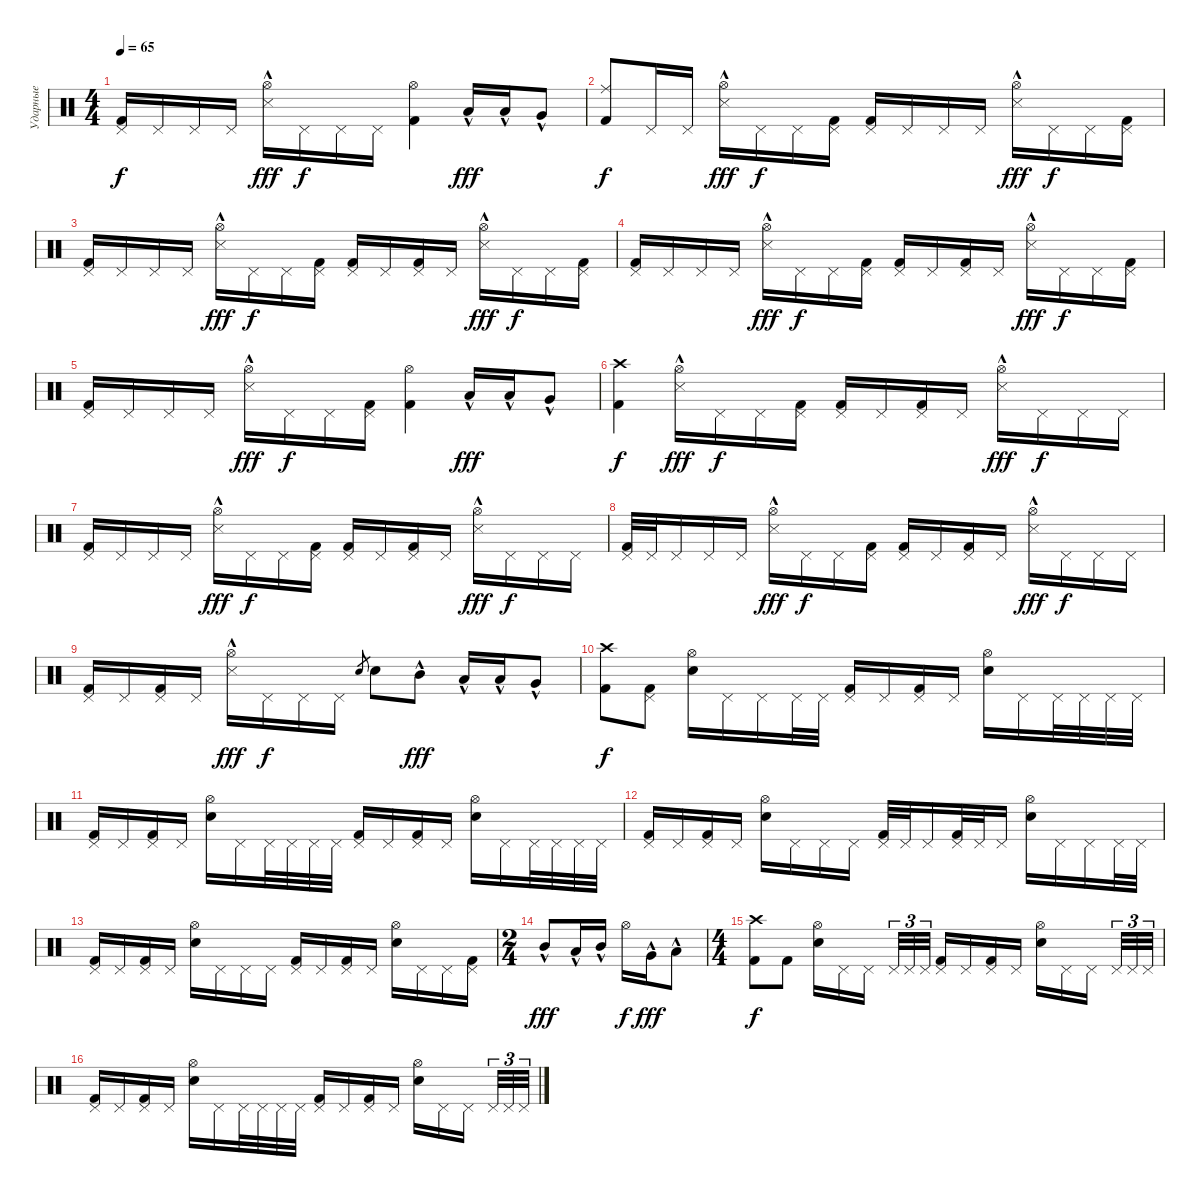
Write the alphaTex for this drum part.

\track ("Ударные" "Ударные") {instrument percussion}
\staff {score}
\articulation defaults
\ts (4 4)
\tempo 65
\clef neutral
\ks c
("Kick (hit) 2" "Pedal Hi-Hat (hit)").16{dy f} "Pedal Hi-Hat (hit)".16 "Pedal Hi-Hat (hit)".16 "Pedal Hi-Hat (hit)".16 ("Snare (side stick) 3"{hac} "Hi-Hat (open)").16{dy fff} "Pedal Hi-Hat (hit)".16{dy f} "Pedal Hi-Hat (hit)".16 "Pedal Hi-Hat (hit)".16 ("Kick (hit) 2" "Hi-Hat (open)").4 "Low Tom (hit)"{hac}.16{dy fff} "Low Tom (hit)"{hac}.16 "Very Low Tom (hit)"{hac}.8 |
("Kick (hit) 2" "Ride (middle)").8{dy f} "Pedal Hi-Hat (hit)".16 "Pedal Hi-Hat (hit)".16 ("Snare (side stick) 3"{hac} "Hi-Hat (open)").16{dy fff} "Pedal Hi-Hat (hit)".16{dy f} "Pedal Hi-Hat (hit)".16 ("Kick (hit) 2" "Pedal Hi-Hat (hit)").16 ("Kick (hit) 2" "Pedal Hi-Hat (hit)").16 "Pedal Hi-Hat (hit)".16 "Pedal Hi-Hat (hit)".16 "Pedal Hi-Hat (hit)".16 ("Snare (side stick) 3"{hac} "Hi-Hat (open)").16{dy fff} "Pedal Hi-Hat (hit)".16{dy f} "Pedal Hi-Hat (hit)".16 ("Kick (hit) 2" "Pedal Hi-Hat (hit)").16 |
("Kick (hit) 2" "Pedal Hi-Hat (hit)").16 "Pedal Hi-Hat (hit)".16 "Pedal Hi-Hat (hit)".16 "Pedal Hi-Hat (hit)".16 ("Snare (side stick) 3"{hac} "Hi-Hat (open)").16{dy fff} "Pedal Hi-Hat (hit)".16{dy f} "Pedal Hi-Hat (hit)".16 ("Kick (hit) 2" "Pedal Hi-Hat (hit)").16 ("Kick (hit) 2" "Pedal Hi-Hat (hit)").16 "Pedal Hi-Hat (hit)".16 ("Kick (hit) 2" "Pedal Hi-Hat (hit)").16 "Pedal Hi-Hat (hit)".16 ("Snare (side stick) 3"{hac} "Hi-Hat (open)").16{dy fff} "Pedal Hi-Hat (hit)".16{dy f} "Pedal Hi-Hat (hit)".16 ("Kick (hit) 2" "Pedal Hi-Hat (hit)").16 |
("Kick (hit) 2" "Pedal Hi-Hat (hit)").16 "Pedal Hi-Hat (hit)".16 "Pedal Hi-Hat (hit)".16 "Pedal Hi-Hat (hit)".16 ("Snare (side stick) 3"{hac} "Hi-Hat (open)").16{dy fff} "Pedal Hi-Hat (hit)".16{dy f} "Pedal Hi-Hat (hit)".16 ("Kick (hit) 2" "Pedal Hi-Hat (hit)").16 ("Kick (hit) 2" "Pedal Hi-Hat (hit)").16 "Pedal Hi-Hat (hit)".16 ("Kick (hit) 2" "Pedal Hi-Hat (hit)").16 "Pedal Hi-Hat (hit)".16 ("Snare (side stick) 3"{hac} "Hi-Hat (open)").16{dy fff} "Pedal Hi-Hat (hit)".16{dy f} "Pedal Hi-Hat (hit)".16 ("Kick (hit) 2" "Pedal Hi-Hat (hit)").16 |
("Kick (hit) 2" "Pedal Hi-Hat (hit)").16 "Pedal Hi-Hat (hit)".16 "Pedal Hi-Hat (hit)".16 "Pedal Hi-Hat (hit)".16 ("Snare (side stick) 3"{hac} "Hi-Hat (open)").16{dy fff} "Pedal Hi-Hat (hit)".16{dy f} "Pedal Hi-Hat (hit)".16 ("Kick (hit) 2" "Pedal Hi-Hat (hit)").16 ("Kick (hit) 2" "Hi-Hat (open)").4 "Low Tom (hit)"{hac}.16{dy fff} "Low Tom (hit)"{hac}.16 "Very Low Tom (hit)"{hac}.8 |
("Kick (hit) 2" "Crash high (hit)").4{dy f} ("Snare (side stick) 3"{hac} "Hi-Hat (open)").16{dy fff} "Pedal Hi-Hat (hit)".16{dy f} "Pedal Hi-Hat (hit)".16 ("Kick (hit) 2" "Pedal Hi-Hat (hit)").16 ("Kick (hit) 2" "Pedal Hi-Hat (hit)").16 "Pedal Hi-Hat (hit)".16 ("Kick (hit) 2" "Pedal Hi-Hat (hit)").16 "Pedal Hi-Hat (hit)".16 ("Snare (side stick) 3"{hac} "Hi-Hat (open)").16{dy fff} "Pedal Hi-Hat (hit)".16{dy f} "Pedal Hi-Hat (hit)".16 "Pedal Hi-Hat (hit)".16 |
("Kick (hit) 2" "Pedal Hi-Hat (hit)").16 "Pedal Hi-Hat (hit)".16 "Pedal Hi-Hat (hit)".16 "Pedal Hi-Hat (hit)".16 ("Snare (side stick) 3"{hac} "Hi-Hat (open)").16{dy fff} "Pedal Hi-Hat (hit)".16{dy f} "Pedal Hi-Hat (hit)".16 ("Kick (hit) 2" "Pedal Hi-Hat (hit)").16 ("Kick (hit) 2" "Pedal Hi-Hat (hit)").16 "Pedal Hi-Hat (hit)".16 ("Kick (hit) 2" "Pedal Hi-Hat (hit)").16 "Pedal Hi-Hat (hit)".16 ("Snare (side stick) 3"{hac} "Hi-Hat (open)").16{dy fff} "Pedal Hi-Hat (hit)".16{dy f} "Pedal Hi-Hat (hit)".16 "Pedal Hi-Hat (hit)".16 |
("Kick (hit) 2" "Pedal Hi-Hat (hit)").32 "Pedal Hi-Hat (hit)".32 "Pedal Hi-Hat (hit)".16 "Pedal Hi-Hat (hit)".16 "Pedal Hi-Hat (hit)".16 ("Snare (side stick) 3"{hac} "Hi-Hat (open)").16{dy fff} "Pedal Hi-Hat (hit)".16{dy f} "Pedal Hi-Hat (hit)".16 ("Kick (hit) 2" "Pedal Hi-Hat (hit)").16 ("Kick (hit) 2" "Pedal Hi-Hat (hit)").16 "Pedal Hi-Hat (hit)".16 ("Kick (hit) 2" "Pedal Hi-Hat (hit)").16 "Pedal Hi-Hat (hit)".16 ("Snare (side stick) 3"{hac} "Hi-Hat (open)").16{dy fff} "Pedal Hi-Hat (hit)".16{dy f} "Pedal Hi-Hat (hit)".16 "Pedal Hi-Hat (hit)".16 |
("Kick (hit) 2" "Pedal Hi-Hat (hit)").16 "Pedal Hi-Hat (hit)".16 ("Kick (hit) 2" "Pedal Hi-Hat (hit)").16 "Pedal Hi-Hat (hit)".16 ("Snare (side stick) 3"{hac} "Hi-Hat (open)").16{dy fff} "Pedal Hi-Hat (hit)".16{dy f} "Pedal Hi-Hat (hit)".16 "Pedal Hi-Hat (hit)".16 "Snare (hit) 2".8{gr} "Snare (hit) 2".8 "Mid Tom (hit)"{hac}.8{dy fff} "Low Tom (hit)"{hac}.16 "Low Tom (hit)"{hac}.16 "Very Low Tom (hit)"{hac}.8 |
("Kick (hit) 2" "Crash high (hit)").8{dy f} ("Kick (hit) 2" "Pedal Hi-Hat (hit)").8 ("Snare (hit) 2" "Hi-Hat (open)").16 "Pedal Hi-Hat (hit)".16 "Pedal Hi-Hat (hit)".16 "Pedal Hi-Hat (hit)".32 "Pedal Hi-Hat (hit)".32 ("Kick (hit) 2" "Pedal Hi-Hat (hit)").16 "Pedal Hi-Hat (hit)".16 ("Kick (hit) 2" "Pedal Hi-Hat (hit)").16 "Pedal Hi-Hat (hit)".16 ("Snare (hit) 2" "Hi-Hat (open)").16 "Pedal Hi-Hat (hit)".16 "Pedal Hi-Hat (hit)".32 "Pedal Hi-Hat (hit)".32 "Pedal Hi-Hat (hit)".32 "Pedal Hi-Hat (hit)".32 |
("Kick (hit) 2" "Pedal Hi-Hat (hit)").16 "Pedal Hi-Hat (hit)".16 ("Kick (hit) 2" "Pedal Hi-Hat (hit)").16 "Pedal Hi-Hat (hit)".16 ("Snare (hit) 2" "Hi-Hat (open)").16 "Pedal Hi-Hat (hit)".16 "Pedal Hi-Hat (hit)".32 "Pedal Hi-Hat (hit)".32 "Pedal Hi-Hat (hit)".32 "Pedal Hi-Hat (hit)".32 ("Kick (hit) 2" "Pedal Hi-Hat (hit)").16 "Pedal Hi-Hat (hit)".16 ("Kick (hit) 2" "Pedal Hi-Hat (hit)").16 "Pedal Hi-Hat (hit)".16 ("Snare (hit) 2" "Hi-Hat (open)").16 "Pedal Hi-Hat (hit)".16 "Pedal Hi-Hat (hit)".32 "Pedal Hi-Hat (hit)".32 "Pedal Hi-Hat (hit)".32 "Pedal Hi-Hat (hit)".32 |
("Kick (hit) 2" "Pedal Hi-Hat (hit)").16 "Pedal Hi-Hat (hit)".16 ("Kick (hit) 2" "Pedal Hi-Hat (hit)").16 "Pedal Hi-Hat (hit)".16 ("Snare (hit) 2" "Hi-Hat (open)").16 "Pedal Hi-Hat (hit)".16 "Pedal Hi-Hat (hit)".16 "Pedal Hi-Hat (hit)".16 ("Kick (hit) 2" "Pedal Hi-Hat (hit)").32 "Pedal Hi-Hat (hit)".32 "Pedal Hi-Hat (hit)".16 ("Kick (hit) 2" "Pedal Hi-Hat (hit)").32 "Pedal Hi-Hat (hit)".32 "Pedal Hi-Hat (hit)".16 ("Snare (hit) 2" "Hi-Hat (open)").16 "Pedal Hi-Hat (hit)".16 "Pedal Hi-Hat (hit)".16 "Pedal Hi-Hat (hit)".32 "Pedal Hi-Hat (hit)".32 |
("Kick (hit) 2" "Pedal Hi-Hat (hit)").16 "Pedal Hi-Hat (hit)".16 ("Kick (hit) 2" "Pedal Hi-Hat (hit)").16 "Pedal Hi-Hat (hit)".16 ("Snare (hit) 2" "Hi-Hat (open)").16 "Pedal Hi-Hat (hit)".16 "Pedal Hi-Hat (hit)".16 "Pedal Hi-Hat (hit)".16 ("Kick (hit) 2" "Pedal Hi-Hat (hit)").16 "Pedal Hi-Hat (hit)".16 ("Kick (hit) 2" "Pedal Hi-Hat (hit)").16 "Pedal Hi-Hat (hit)".16 ("Snare (hit) 2" "Hi-Hat (open)").16 "Pedal Hi-Hat (hit)".16 "Pedal Hi-Hat (hit)".16 ("Kick (hit) 2" "Pedal Hi-Hat (hit)").16 |
\ts (2 4)
"Mid Tom (hit)"{hac}.8{dy fff} "Low Tom (hit)"{hac}.16 "Mid Tom (hit)"{hac}.16 "Hi-Hat (open)".16{dy f} "Very Low Tom (hit)"{hac}.16{dy fff} "Low Floor Tom (hit)"{hac}.8 |
\ts (4 4)
("Kick (hit) 2" "Crash high (hit)").8{dy f} "Kick (hit) 2".8 ("Snare (hit) 2" "Hi-Hat (open)").16 "Pedal Hi-Hat (hit)".16 "Pedal Hi-Hat (hit)".16{beam splitsecondary} "Pedal Hi-Hat (hit)".32{tu (3 2)} "Pedal Hi-Hat (hit)".32{tu (3 2)} "Pedal Hi-Hat (hit)".32{tu (3 2)} ("Kick (hit) 2" "Pedal Hi-Hat (hit)").16 "Pedal Hi-Hat (hit)".16 ("Kick (hit) 2" "Pedal Hi-Hat (hit)").16 "Pedal Hi-Hat (hit)".16 ("Snare (hit) 2" "Hi-Hat (open)").16 "Pedal Hi-Hat (hit)".16 "Pedal Hi-Hat (hit)".16{beam splitsecondary} "Pedal Hi-Hat (hit)".32{tu (3 2)} "Pedal Hi-Hat (hit)".32{tu (3 2)} "Pedal Hi-Hat (hit)".32{tu (3 2)} |
("Kick (hit) 2" "Pedal Hi-Hat (hit)").16 "Pedal Hi-Hat (hit)".16 ("Kick (hit) 2" "Pedal Hi-Hat (hit)").16 "Pedal Hi-Hat (hit)".16 ("Snare (hit) 2" "Hi-Hat (open)").16 "Pedal Hi-Hat (hit)".16 "Pedal Hi-Hat (hit)".32 "Pedal Hi-Hat (hit)".32 "Pedal Hi-Hat (hit)".32 "Pedal Hi-Hat (hit)".32 ("Kick (hit) 2" "Pedal Hi-Hat (hit)").16 "Pedal Hi-Hat (hit)".16 ("Kick (hit) 2" "Pedal Hi-Hat (hit)").16 "Pedal Hi-Hat (hit)".16 ("Snare (hit) 2" "Hi-Hat (open)").16 "Pedal Hi-Hat (hit)".16 "Pedal Hi-Hat (hit)".16{beam splitsecondary} "Pedal Hi-Hat (hit)".32{tu (3 2)} "Pedal Hi-Hat (hit)".32{tu (3 2)} "Pedal Hi-Hat (hit)".32{tu (3 2)}
